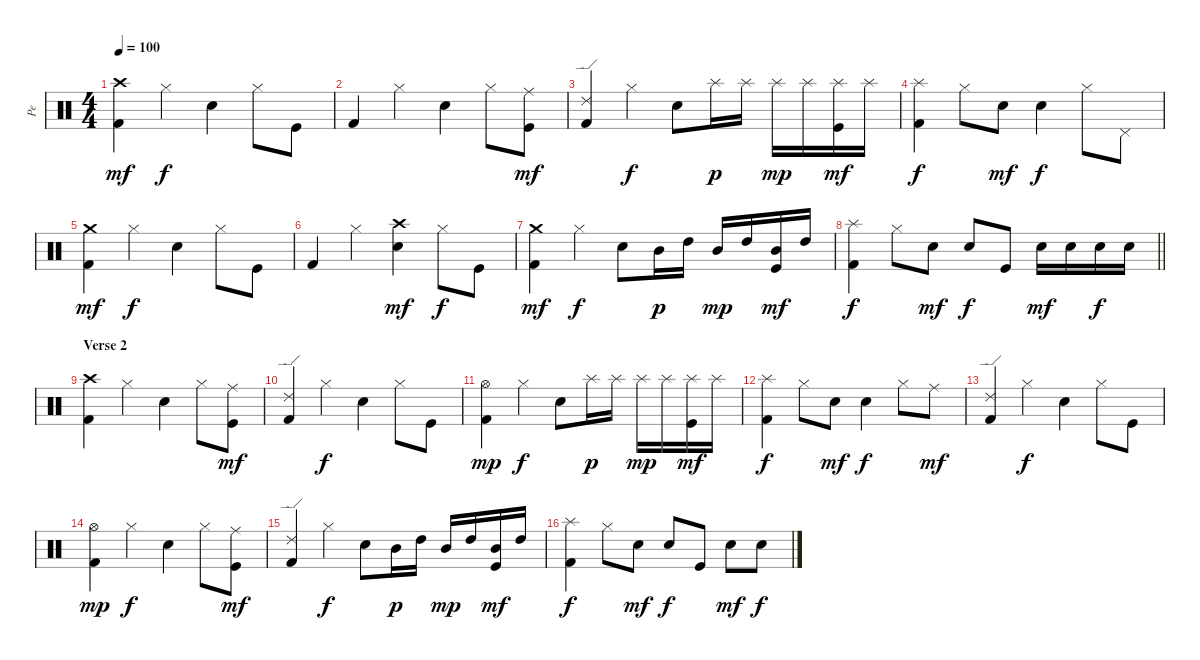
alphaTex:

\track ("Pe" "Pe") {instrument percussion}
\staff {score}
\articulation defaults
\ts (4 4)
\tempo 100
\clef neutral
\ks c
("Kick (hit) 2" "Crash high (hit)").4{dy mf} "Hi-Hat (closed)".4{dy f} "Electric Snare (hit)".4 "Hi-Hat (closed)".8 "Kick (hit)".8 |
"Kick (hit) 2".4 "Hi-Hat (closed)".4 "Electric Snare (hit)".4 "Hi-Hat (closed)".8 ("Kick (hit)" "Ride (middle)").8{dy mf} |
("Kick (hit) 2" "Ride (edge) 2").4 "Hi-Hat (closed)".4{dy f} "Electric Snare (hit)".8 "Splash (hit)".16{dy p} "Splash (hit)".16 "Splash (hit)".16{dy mp} "Splash (hit)".16 ("Kick (hit)" "Splash (hit)").16{dy mf} "Splash (hit)".16 |
("Kick (hit) 2" "Splash (hit)").4{dy f} "Hi-Hat (closed)".8 "Electric Snare (hit)".8{dy mf} "Electric Snare (hit)".4{dy f} "Hi-Hat (closed)".8 "Pedal Hi-Hat (hit)".8 |
("Kick (hit) 2" "Crash medium (hit)").4{dy mf} "Hi-Hat (closed)".4{dy f} "Electric Snare (hit)".4 "Hi-Hat (closed)".8 "Kick (hit)".8 |
"Kick (hit) 2".4 "Hi-Hat (closed)".4 ("Electric Snare (hit)" "Crash high (hit)").4{dy mf} "Hi-Hat (closed)".8{dy f} "Kick (hit)".8 |
("Kick (hit) 2" "Crash medium (hit)").4{dy mf} "Hi-Hat (closed)".4{dy f} "Electric Snare (hit)".8 "Mid Tom (hit)".16{dy p} "High Tom (hit)".16 "Mid Tom (hit)".16{dy mp} "High Tom (hit)".16 ("Kick (hit)" "Mid Tom (hit)").16{dy mf} "High Tom (hit)".16 |
\barLineRight lightlight
("Kick (hit) 2" "Splash (hit)").4{dy f} "Hi-Hat (closed)".8 "Electric Snare (hit)".8{dy mf} "Electric Snare (hit)".8{dy f} "Kick (hit)".8 "Electric Snare (hit)".16{dy mf} "Electric Snare (hit)".16 "Electric Snare (hit)".16{dy f} "Electric Snare (hit)".16 |
\section ("" "Verse 2")
("Kick (hit) 2" "Crash high (hit)").4 "Hi-Hat (closed)".4 "Electric Snare (hit)".4 "Hi-Hat (closed)".8 ("Kick (hit)" "Ride (middle)").8{dy mf} |
("Kick (hit) 2" "Ride (edge) 2").4 "Hi-Hat (closed)".4{dy f} "Electric Snare (hit)".4 "Hi-Hat (closed)".8 "Kick (hit)".8 |
("Kick (hit) 2" "Hi-Hat (open)").4{dy mp} "Hi-Hat (closed)".4{dy f} "Electric Snare (hit)".8 "Splash (hit)".16{dy p} "Splash (hit)".16 "Splash (hit)".16{dy mp} "Splash (hit)".16 ("Kick (hit)" "Splash (hit)").16{dy mf} "Splash (hit)".16 |
("Kick (hit) 2" "Splash (hit)").4{dy f} "Hi-Hat (closed)".8 "Electric Snare (hit)".8{dy mf} "Electric Snare (hit)".4{dy f} "Hi-Hat (closed)".8 "Ride (middle)".8{dy mf} |
("Kick (hit) 2" "Ride (edge) 2").4 "Hi-Hat (closed)".4{dy f} "Electric Snare (hit)".4 "Hi-Hat (closed)".8 "Kick (hit)".8 |
("Kick (hit) 2" "Hi-Hat (open)").4{dy mp} "Hi-Hat (closed)".4{dy f} "Electric Snare (hit)".4 "Hi-Hat (closed)".8 ("Kick (hit)" "Ride (middle)").8{dy mf} |
("Kick (hit) 2" "Ride (edge) 2").4 "Hi-Hat (closed)".4{dy f} "Electric Snare (hit)".8 "Mid Tom (hit)".16{dy p} "High Tom (hit)".16 "Mid Tom (hit)".16{dy mp} "High Tom (hit)".16 ("Kick (hit)" "Mid Tom (hit)").16{dy mf} "High Tom (hit)".16 |
("Kick (hit) 2" "Splash (hit)").4{dy f} "Hi-Hat (closed)".8 "Electric Snare (hit)".8{dy mf} "Electric Snare (hit)".8{dy f} "Kick (hit)".8 "Electric Snare (hit)".8{dy mf} "Electric Snare (hit)".8{dy f}
